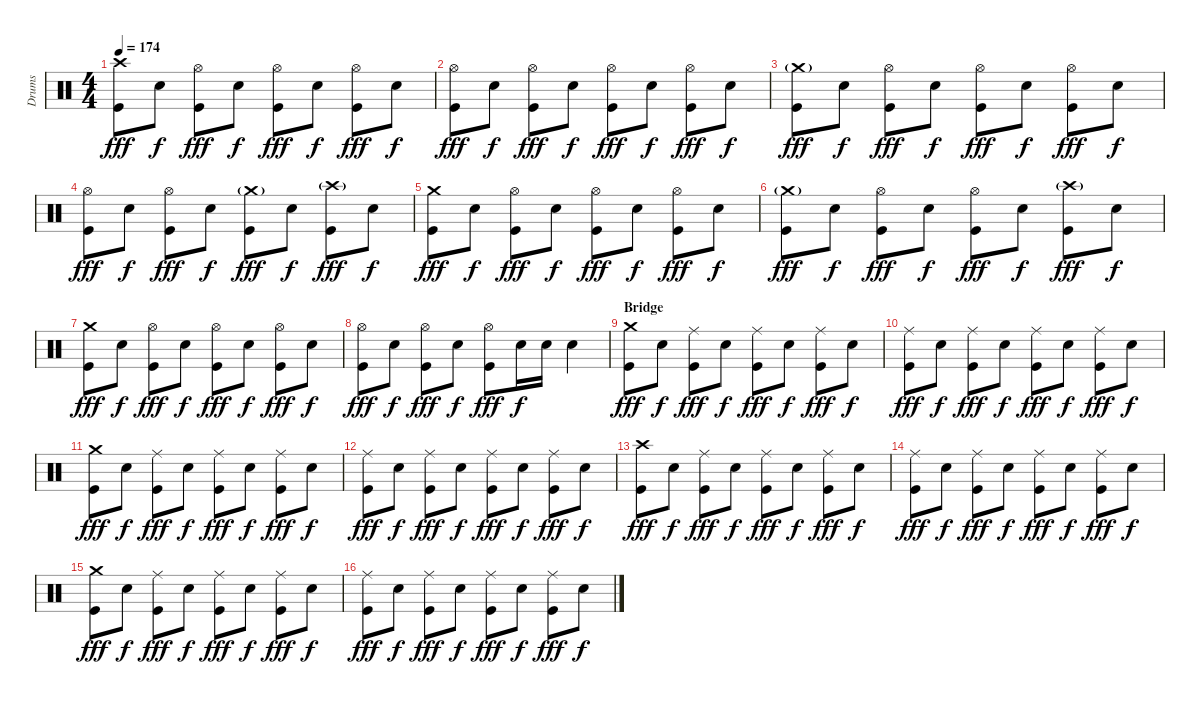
\track ("Drums" "Drums") {instrument percussion}
\staff {score}
\articulation defaults
\ts (4 4)
\tempo 174
\clef neutral
\ks c
("Crash high (hit)" "Kick (hit)").8{dy fff} "Snare (hit) 2".8{dy f} ("Hi-Hat (open)" "Kick (hit)").8{dy fff} "Snare (hit) 2".8{dy f} ("Hi-Hat (open)" "Kick (hit)").8{dy fff} "Snare (hit) 2".8{dy f} ("Hi-Hat (open)" "Kick (hit)").8{dy fff} "Snare (hit) 2".8{dy f} |
("Hi-Hat (open)" "Kick (hit)").8{dy fff} "Snare (hit) 2".8{dy f} ("Hi-Hat (open)" "Kick (hit)").8{dy fff} "Snare (hit) 2".8{dy f} ("Hi-Hat (open)" "Kick (hit)").8{dy fff} "Snare (hit) 2".8{dy f} ("Hi-Hat (open)" "Kick (hit)").8{dy fff} "Snare (hit) 2".8{dy f} |
("Crash medium (hit)"{g} "Kick (hit)").8{dy fff} "Snare (hit) 2".8{dy f} ("Hi-Hat (open)" "Kick (hit)").8{dy fff} "Snare (hit) 2".8{dy f} ("Hi-Hat (open)" "Kick (hit)").8{dy fff} "Snare (hit) 2".8{dy f} ("Hi-Hat (open)" "Kick (hit)").8{dy fff} "Snare (hit) 2".8{dy f} |
("Hi-Hat (open)" "Kick (hit)").8{dy fff} "Snare (hit) 2".8{dy f} ("Hi-Hat (open)" "Kick (hit)").8{dy fff} "Snare (hit) 2".8{dy f} ("Crash medium (hit)"{g} "Kick (hit)").8{dy fff} "Snare (hit) 2".8{dy f} ("Crash high (hit)"{g} "Kick (hit)").8{dy fff} "Snare (hit) 2".8{dy f} |
("Crash medium (hit)" "Kick (hit)").8{dy fff} "Snare (hit) 2".8{dy f} ("Hi-Hat (open)" "Kick (hit)").8{dy fff} "Snare (hit) 2".8{dy f} ("Hi-Hat (open)" "Kick (hit)").8{dy fff} "Snare (hit) 2".8{dy f} ("Hi-Hat (open)" "Kick (hit)").8{dy fff} "Snare (hit) 2".8{dy f} |
("Crash medium (hit)"{g} "Kick (hit)").8{dy fff} "Snare (hit) 2".8{dy f} ("Hi-Hat (open)" "Kick (hit)").8{dy fff} "Snare (hit) 2".8{dy f} ("Hi-Hat (open)" "Kick (hit)").8{dy fff} "Snare (hit) 2".8{dy f} ("Crash high (hit)"{g} "Kick (hit)").8{dy fff} "Snare (hit) 2".8{dy f} |
("Crash medium (hit)" "Kick (hit)").8{dy fff} "Snare (hit) 2".8{dy f} ("Hi-Hat (open)" "Kick (hit)").8{dy fff} "Snare (hit) 2".8{dy f} ("Hi-Hat (open)" "Kick (hit)").8{dy fff} "Snare (hit) 2".8{dy f} ("Hi-Hat (open)" "Kick (hit)").8{dy fff} "Snare (hit) 2".8{dy f} |
("Hi-Hat (open)" "Kick (hit)").8{dy fff} "Snare (hit) 2".8{dy f} ("Hi-Hat (open)" "Kick (hit)").8{dy fff} "Snare (hit) 2".8{dy f} ("Hi-Hat (open)" "Kick (hit)").8{dy fff} "Snare (hit) 2".16{dy f} "Snare (hit) 2".16 "Snare (hit) 2".4 |
\section ("" "Bridge")
("Crash medium (hit)" "Kick (hit)").8{dy fff} "Snare (hit) 2".8{dy f} ("Ride (middle)" "Kick (hit)").8{dy fff} "Snare (hit) 2".8{dy f} ("Ride (middle)" "Kick (hit)").8{dy fff} "Snare (hit) 2".8{dy f} ("Ride (middle)" "Kick (hit)").8{dy fff} "Snare (hit) 2".8{dy f} |
("Ride (middle)" "Kick (hit)").8{dy fff} "Snare (hit) 2".8{dy f} ("Ride (middle)" "Kick (hit)").8{dy fff} "Snare (hit) 2".8{dy f} ("Ride (middle)" "Kick (hit)").8{dy fff} "Snare (hit) 2".8{dy f} ("Ride (middle)" "Kick (hit)").8{dy fff} "Snare (hit) 2".8{dy f} |
("Crash medium (hit)" "Kick (hit)").8{dy fff} "Snare (hit) 2".8{dy f} ("Ride (middle)" "Kick (hit)").8{dy fff} "Snare (hit) 2".8{dy f} ("Ride (middle)" "Kick (hit)").8{dy fff} "Snare (hit) 2".8{dy f} ("Ride (middle)" "Kick (hit)").8{dy fff} "Snare (hit) 2".8{dy f} |
("Ride (middle)" "Kick (hit)").8{dy fff} "Snare (hit) 2".8{dy f} ("Ride (middle)" "Kick (hit)").8{dy fff} "Snare (hit) 2".8{dy f} ("Ride (middle)" "Kick (hit)").8{dy fff} "Snare (hit) 2".8{dy f} ("Ride (middle)" "Kick (hit)").8{dy fff} "Snare (hit) 2".8{dy f} |
("Crash high (hit)" "Kick (hit)").8{dy fff} "Snare (hit) 2".8{dy f} ("Ride (middle)" "Kick (hit)").8{dy fff} "Snare (hit) 2".8{dy f} ("Ride (middle)" "Kick (hit)").8{dy fff} "Snare (hit) 2".8{dy f} ("Ride (middle)" "Kick (hit)").8{dy fff} "Snare (hit) 2".8{dy f} |
("Ride (middle)" "Kick (hit)").8{dy fff} "Snare (hit) 2".8{dy f} ("Ride (middle)" "Kick (hit)").8{dy fff} "Snare (hit) 2".8{dy f} ("Ride (middle)" "Kick (hit)").8{dy fff} "Snare (hit) 2".8{dy f} ("Ride (middle)" "Kick (hit)").8{dy fff} "Snare (hit) 2".8{dy f} |
("Crash medium (hit)" "Kick (hit)").8{dy fff} "Snare (hit) 2".8{dy f} ("Ride (middle)" "Kick (hit)").8{dy fff} "Snare (hit) 2".8{dy f} ("Ride (middle)" "Kick (hit)").8{dy fff} "Snare (hit) 2".8{dy f} ("Ride (middle)" "Kick (hit)").8{dy fff} "Snare (hit) 2".8{dy f} |
("Ride (middle)" "Kick (hit)").8{dy fff} "Snare (hit) 2".8{dy f} ("Ride (middle)" "Kick (hit)").8{dy fff} "Snare (hit) 2".8{dy f} ("Ride (middle)" "Kick (hit)").8{dy fff} "Snare (hit) 2".8{dy f} ("Ride (middle)" "Kick (hit)").8{dy fff} "Snare (hit) 2".8{dy f}
